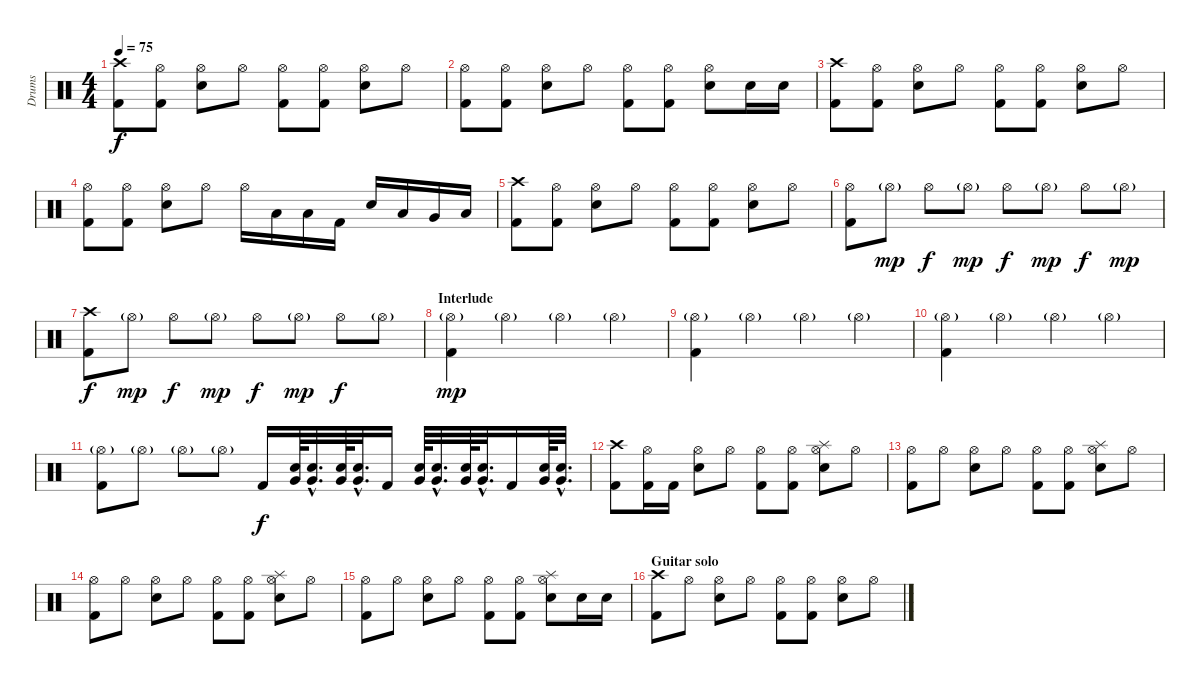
\track ("Drums" "Drums") {instrument percussion}
\staff {score}
\articulation defaults
\ts (4 4)
\tempo 75
\clef neutral
\ks c
("Crash high (hit)" "Kick (hit) 2").8{dy f} ("Hi-Hat (open)" "Kick (hit) 2").8 ("Hi-Hat (open)" "Snare (hit) 2").8 "Hi-Hat (open)".8 ("Hi-Hat (open)" "Kick (hit) 2").8 ("Hi-Hat (open)" "Kick (hit) 2").8 ("Hi-Hat (open)" "Snare (hit) 2").8 "Hi-Hat (open)".8 |
("Hi-Hat (open)" "Kick (hit) 2").8 ("Hi-Hat (open)" "Kick (hit) 2").8 ("Hi-Hat (open)" "Snare (hit) 2").8 "Hi-Hat (open)".8 ("Hi-Hat (open)" "Kick (hit) 2").8 ("Hi-Hat (open)" "Kick (hit) 2").8 ("Hi-Hat (open)" "Snare (hit) 2").8 "Snare (hit) 2".16 "Snare (hit) 2".16 |
("Crash high (hit)" "Kick (hit) 2").8 ("Hi-Hat (open)" "Kick (hit) 2").8 ("Hi-Hat (open)" "Snare (hit) 2").8 "Hi-Hat (open)".8 ("Hi-Hat (open)" "Kick (hit) 2").8 ("Hi-Hat (open)" "Kick (hit) 2").8 ("Hi-Hat (open)" "Snare (hit) 2").8 "Hi-Hat (open)".8 |
("Hi-Hat (open)" "Kick (hit) 2").8 ("Hi-Hat (open)" "Kick (hit) 2").8 ("Hi-Hat (open)" "Snare (hit) 2").8 "Hi-Hat (open)".8 "Hi-Hat (open)".16 "Low Tom (hit)".16 "Low Tom (hit)".16 "Kick (hit) 2".16 "Snare (hit) 2".16 "Low Tom (hit)".16 "Very Low Tom (hit)".16 "Low Floor Tom (hit)".16 |
("Crash high (hit)" "Kick (hit) 2").8 ("Hi-Hat (open)" "Kick (hit) 2").8 ("Hi-Hat (open)" "Snare (hit) 2").8 "Hi-Hat (open)".8 ("Hi-Hat (open)" "Kick (hit) 2").8 ("Hi-Hat (open)" "Kick (hit) 2").8 ("Hi-Hat (open)" "Snare (hit) 2").8 "Hi-Hat (open)".8 |
("Hi-Hat (open)" "Kick (hit) 2").8 "Hi-Hat (open)"{g}.8{dy mp} "Hi-Hat (open)".8{dy f} "Hi-Hat (open)"{g}.8{dy mp} "Hi-Hat (open)".8{dy f} "Hi-Hat (open)"{g}.8{dy mp} "Hi-Hat (open)".8{dy f} "Hi-Hat (open)"{g}.8{dy mp} |
("Crash high (hit)" "Kick (hit) 2").8{dy f} "Hi-Hat (open)"{g}.8{dy mp} "Hi-Hat (open)".8{dy f} "Hi-Hat (open)"{g}.8{dy mp} "Hi-Hat (open)".8{dy f} "Hi-Hat (open)"{g}.8{dy mp} "Hi-Hat (open)".8{dy f} "Hi-Hat (open)"{g}.8 |
\section ("" "Interlude")
("Hi-Hat (open)"{g} "Kick (hit) 2").4{dy mp} "Hi-Hat (open)"{g}.4 "Hi-Hat (open)"{g}.4 "Hi-Hat (open)"{g}.4 |
("Hi-Hat (open)"{g} "Kick (hit) 2").4 "Hi-Hat (open)"{g}.4 "Hi-Hat (open)"{g}.4 "Hi-Hat (open)"{g}.4 |
("Hi-Hat (open)"{g} "Kick (hit) 2").4 "Hi-Hat (open)"{g}.4 "Hi-Hat (open)"{g}.4 "Hi-Hat (open)"{g}.4 |
("Hi-Hat (open)"{g} "Kick (hit) 2").8 "Hi-Hat (open)"{g}.8 "Hi-Hat (open)"{g}.8 "Hi-Hat (open)"{g}.8 "Kick (hit) 2".16{dy f} ("Very Low Tom (hit)" "Snare (hit) 2").64 ("Very Low Tom (hit)"{hac} "Snare (hit) 2"{hac}).32{d} ("Very Low Tom (hit)" "Snare (hit) 2").64 ("Very Low Tom (hit)"{hac} "Snare (hit) 2"{hac}).32{d} "Kick (hit) 2".16 ("Very Low Tom (hit)" "Snare (hit) 2").64 ("Very Low Tom (hit)"{hac} "Snare (hit) 2"{hac}).32{d} ("Very Low Tom (hit)" "Snare (hit) 2").64 ("Very Low Tom (hit)"{hac} "Snare (hit) 2"{hac}).32{d} "Kick (hit) 2".16 ("Very Low Tom (hit)" "Snare (hit) 2").64 ("Very Low Tom (hit)"{hac} "Snare (hit) 2"{hac}).32{d} |
("Crash high (hit)" "Kick (hit) 2").8 ("Hi-Hat (open)" "Kick (hit) 2").16 "Kick (hit) 2".16 ("Hi-Hat (open)" "Snare (hit) 2").8 "Hi-Hat (open)".8 ("Hi-Hat (open)" "Kick (hit) 2").8 ("Hi-Hat (open)" "Kick (hit) 2").8 ("Hi-Hat (open)" "Splash (hit)" "Snare (hit) 2").8 "Hi-Hat (open)".8 |
("Hi-Hat (open)" "Kick (hit) 2").8 "Hi-Hat (open)".8 ("Hi-Hat (open)" "Snare (hit) 2").8 "Hi-Hat (open)".8 ("Hi-Hat (open)" "Kick (hit) 2").8 ("Hi-Hat (open)" "Kick (hit) 2").8 ("Hi-Hat (open)" "Splash (hit)" "Snare (hit) 2").8 "Hi-Hat (open)".8 |
("Hi-Hat (open)" "Kick (hit) 2").8 "Hi-Hat (open)".8 ("Hi-Hat (open)" "Snare (hit) 2").8 "Hi-Hat (open)".8 ("Hi-Hat (open)" "Kick (hit) 2").8 ("Hi-Hat (open)" "Kick (hit) 2").8 ("Hi-Hat (open)" "Splash (hit)" "Snare (hit) 2").8 "Hi-Hat (open)".8 |
("Hi-Hat (open)" "Kick (hit) 2").8 "Hi-Hat (open)".8 ("Hi-Hat (open)" "Snare (hit) 2").8 "Hi-Hat (open)".8 ("Hi-Hat (open)" "Kick (hit) 2").8 ("Hi-Hat (open)" "Kick (hit) 2").8 ("Hi-Hat (open)" "Splash (hit)" "Snare (hit) 2").8 "Snare (hit) 2".16 "Snare (hit) 2".16 |
\section ("" "Guitar solo")
("Crash high (hit)" "Kick (hit) 2").8 "Hi-Hat (open)".8 ("Hi-Hat (open)" "Snare (hit) 2").8 "Hi-Hat (open)".8 ("Hi-Hat (open)" "Kick (hit) 2").8 ("Hi-Hat (open)" "Kick (hit) 2").8 ("Hi-Hat (open)" "Snare (hit) 2").8 "Hi-Hat (open)".8
